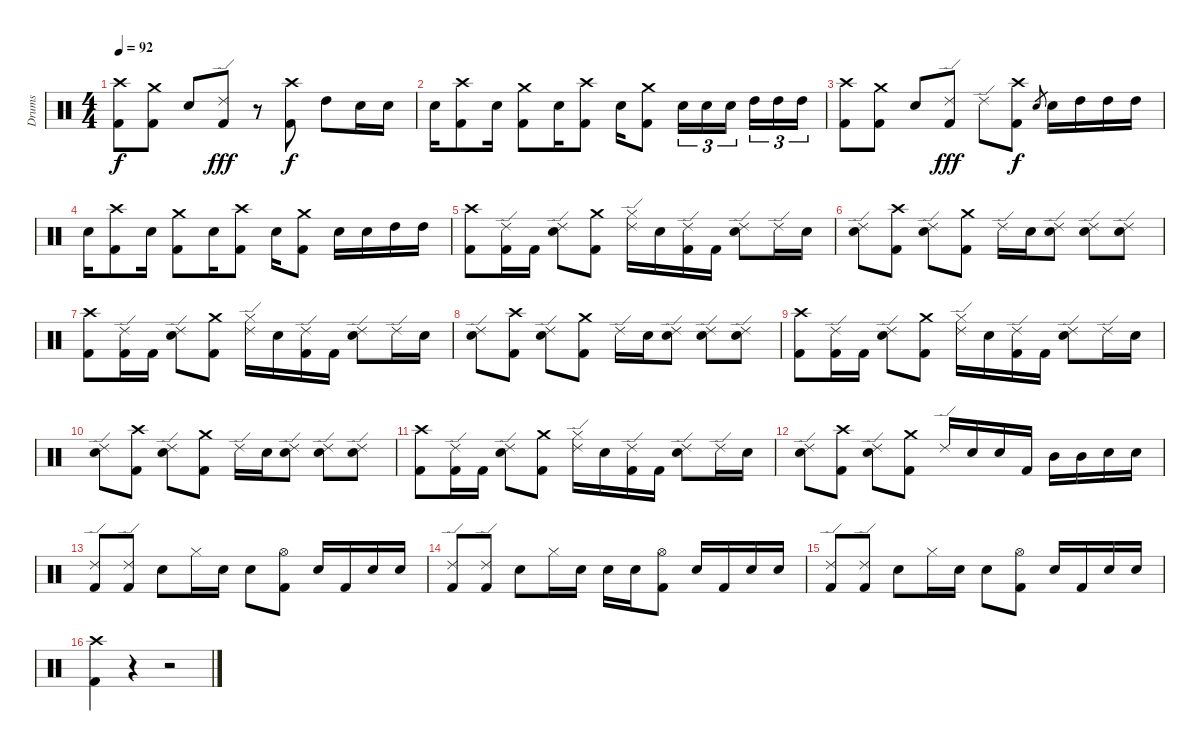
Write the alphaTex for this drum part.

\track ("Drums" "Drums") {instrument percussion}
\staff {score}
\articulation defaults
\ts (4 4)
\tempo 92
\clef neutral
\ks c
("Crash high (hit)" "Kick (hit) 2").8{dy f} ("Crash medium (hit)" "Kick (hit) 2").8 "Snare (hit) 2".8 ("Ride (edge) 2" "Kick (hit) 2").8{dy fff} r.8 ("Crash high (hit)" "Kick (hit) 2").8{dy f} "High Tom (hit)".8 "Snare (hit) 2".16 "Snare (hit) 2".16 |
"Snare (hit) 2".16 ("Crash high (hit)" "Kick (hit) 2").8 "Snare (hit) 2".16 ("Crash medium (hit)" "Kick (hit) 2").8 "Snare (hit) 2".16 ("Crash high (hit)" "Kick (hit) 2").8 "Snare (hit) 2".16 ("Crash medium (hit)" "Kick (hit) 2").8 "Snare (hit) 2".16{tu (3 2)} "Snare (hit) 2".16{tu (3 2)} "Snare (hit) 2".16{tu (3 2)} "High Tom (hit)".16{tu (3 2)} "High Tom (hit)".16{tu (3 2)} "High Tom (hit)".16{tu (3 2)} |
("Crash high (hit)" "Kick (hit) 2").8 ("Crash medium (hit)" "Kick (hit) 2").8 "Snare (hit) 2".8 ("Ride (edge) 2" "Kick (hit) 2").8{dy fff} "Ride (edge) 2".8 ("Crash high (hit)" "Kick (hit) 2").8{dy f} "Snare (hit) 2".8{gr} "Snare (hit) 2".16 "High Tom (hit)".16 "High Tom (hit)".16 "High Tom (hit)".16 |
"Snare (hit) 2".16 ("Crash high (hit)" "Kick (hit) 2").8 "Snare (hit) 2".16 ("Crash medium (hit)" "Kick (hit) 2").8 "Snare (hit) 2".16 ("Crash high (hit)" "Kick (hit) 2").8 "Snare (hit) 2".16 ("Crash medium (hit)" "Kick (hit) 2").8 "Snare (hit) 2".16 "Snare (hit) 2".16 "High Tom (hit)".16 "High Tom (hit)".16 |
("Crash high (hit)" "Kick (hit) 2").8 ("Ride (edge) 2" "Kick (hit) 2").16 "Kick (hit) 2".16 ("Ride (edge) 2" "Snare (hit) 2").8 ("Crash medium (hit)" "Kick (hit) 2").8 ("Ride (edge) 2" "Hi-Hat (closed)").16 "Snare (hit) 2".16 ("Ride (edge) 2" "Kick (hit) 2").16 "Kick (hit) 2".16 ("Ride (edge) 2" "Snare (hit) 2").8 "Ride (edge) 2".16 "Snare (hit) 2".16 |
("Ride (edge) 2" "Snare (hit) 2").8 ("Crash high (hit)" "Kick (hit) 2").8 ("Ride (edge) 2" "Snare (hit) 2").8 ("Crash medium (hit)" "Kick (hit) 2").8 "Ride (edge) 2".16 "Snare (hit) 2".16 ("Ride (edge) 2" "Snare (hit) 2").8 ("Ride (edge) 2" "Snare (hit) 2").8 ("Ride (edge) 2" "Snare (hit) 2").8 |
("Crash high (hit)" "Kick (hit) 2").8 ("Ride (edge) 2" "Kick (hit) 2").16 "Kick (hit) 2".16 ("Ride (edge) 2" "Snare (hit) 2").8 ("Crash medium (hit)" "Kick (hit) 2").8 ("Ride (edge) 2" "Hi-Hat (closed)").16 "Snare (hit) 2".16 ("Ride (edge) 2" "Kick (hit) 2").16 "Kick (hit) 2".16 ("Ride (edge) 2" "Snare (hit) 2").8 "Ride (edge) 2".16 "Snare (hit) 2".16 |
("Ride (edge) 2" "Snare (hit) 2").8 ("Crash high (hit)" "Kick (hit) 2").8 ("Ride (edge) 2" "Snare (hit) 2").8 ("Crash medium (hit)" "Kick (hit) 2").8 "Ride (edge) 2".16 "Snare (hit) 2".16 ("Ride (edge) 2" "Snare (hit) 2").8 ("Ride (edge) 2" "Snare (hit) 2").8 ("Ride (edge) 2" "Snare (hit) 2").8 |
("Crash high (hit)" "Kick (hit) 2").8 ("Ride (edge) 2" "Kick (hit) 2").16 "Kick (hit) 2".16 ("Ride (edge) 2" "Snare (hit) 2").8 ("Crash medium (hit)" "Kick (hit) 2").8 ("Ride (edge) 2" "Hi-Hat (closed)").16 "Snare (hit) 2".16 ("Ride (edge) 2" "Kick (hit) 2").16 "Kick (hit) 2".16 ("Ride (edge) 2" "Snare (hit) 2").8 "Ride (edge) 2".16 "Snare (hit) 2".16 |
("Ride (edge) 2" "Snare (hit) 2").8 ("Crash high (hit)" "Kick (hit) 2").8 ("Ride (edge) 2" "Snare (hit) 2").8 ("Crash medium (hit)" "Kick (hit) 2").8 "Ride (edge) 2".16 "Snare (hit) 2".16 ("Ride (edge) 2" "Snare (hit) 2").8 ("Ride (edge) 2" "Snare (hit) 2").8 ("Ride (edge) 2" "Snare (hit) 2").8 |
("Crash high (hit)" "Kick (hit) 2").8 ("Ride (edge) 2" "Kick (hit) 2").16 "Kick (hit) 2".16 ("Ride (edge) 2" "Snare (hit) 2").8 ("Crash medium (hit)" "Kick (hit) 2").8 ("Ride (edge) 2" "Hi-Hat (closed)").16 "Snare (hit) 2".16 ("Ride (edge) 2" "Kick (hit) 2").16 "Kick (hit) 2".16 ("Ride (edge) 2" "Snare (hit) 2").8 "Ride (edge) 2".16 "Snare (hit) 2".16 |
("Ride (edge) 2" "Snare (hit) 2").8 ("Crash high (hit)" "Kick (hit) 2").8 ("Ride (edge) 2" "Snare (hit) 2").8 ("Crash medium (hit)" "Kick (hit) 2").8 "Ride (edge) 2".16 "Snare (hit) 2".16 "Snare (hit) 2".16 "Kick (hit) 2".16 "Mid Tom (hit)".16 "Mid Tom (hit)".16 "Snare (hit) 2".16 "Snare (hit) 2".16 |
("Ride (edge) 2" "Kick (hit) 2").8 ("Ride (edge) 2" "Kick (hit) 2").8 "Snare (hit) 2".8 "Hi-Hat (closed)".16 "Snare (hit) 2".16 "Snare (hit) 2".8 ("Hi-Hat (open)" "Kick (hit) 2").8 "Snare (hit) 2".16 "Kick (hit) 2".16 "Snare (hit) 2".16 "Snare (hit) 2".16 |
("Ride (edge) 2" "Kick (hit) 2").8 ("Ride (edge) 2" "Kick (hit) 2").8 "Snare (hit) 2".8 "Hi-Hat (closed)".16 "Snare (hit) 2".16 "Snare (hit) 2".16 "Snare (hit) 2".16 ("Hi-Hat (open)" "Kick (hit) 2").8 "Snare (hit) 2".16 "Kick (hit) 2".16 "Snare (hit) 2".16 "Snare (hit) 2".16 |
("Ride (edge) 2" "Kick (hit) 2").8 ("Ride (edge) 2" "Kick (hit) 2").8 "Snare (hit) 2".8 "Hi-Hat (closed)".16 "Snare (hit) 2".16 "Snare (hit) 2".8 ("Hi-Hat (open)" "Kick (hit) 2").8 "Snare (hit) 2".16 "Kick (hit) 2".16 "Snare (hit) 2".16 "Snare (hit) 2".16 |
("Crash high (hit)" "Kick (hit) 2").4 r.4 r.2
